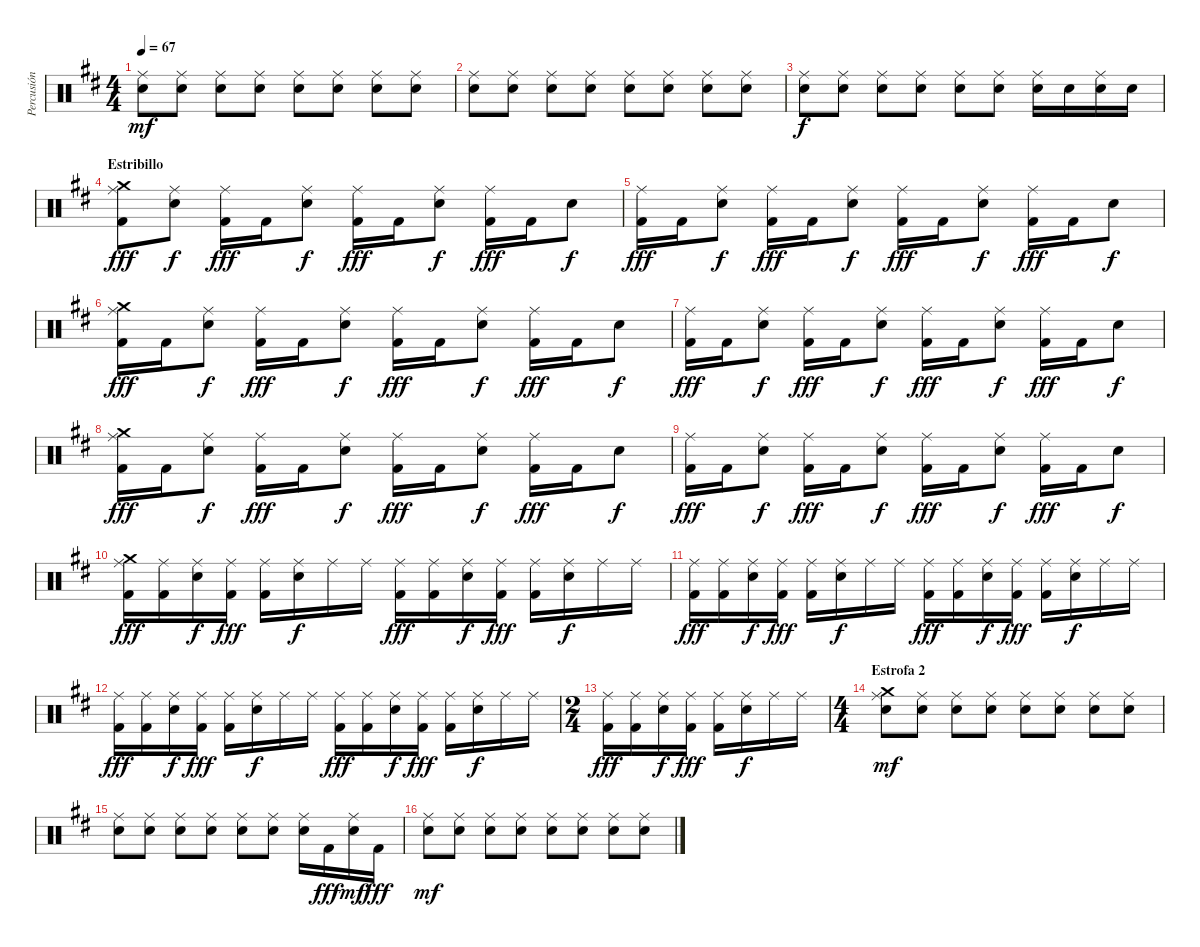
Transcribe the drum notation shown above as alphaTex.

\track ("Percusión" "Percusión") {instrument percussion}
\staff {score}
\articulation defaults
\ts (4 4)
\tempo 67
\clef neutral
\ks bminor
("Snare (hit) 2" "Ride (middle)").8{dy mf} ("Snare (hit) 2" "Ride (middle)").8 ("Snare (hit) 2" "Ride (middle)").8 ("Snare (hit) 2" "Ride (middle)").8 ("Snare (hit) 2" "Ride (middle)").8 ("Snare (hit) 2" "Ride (middle)").8 ("Snare (hit) 2" "Ride (middle)").8 ("Snare (hit) 2" "Ride (middle)").8 |
("Snare (hit) 2" "Ride (middle)").8 ("Snare (hit) 2" "Ride (middle)").8 ("Snare (hit) 2" "Ride (middle)").8 ("Snare (hit) 2" "Ride (middle)").8 ("Snare (hit) 2" "Ride (middle)").8 ("Snare (hit) 2" "Ride (middle)").8 ("Snare (hit) 2" "Ride (middle)").8 ("Snare (hit) 2" "Ride (middle)").8 |
("Snare (hit) 2" "Ride (middle)").8{dy f} ("Snare (hit) 2" "Ride (middle)").8 ("Snare (hit) 2" "Ride (middle)").8 ("Snare (hit) 2" "Ride (middle)").8 ("Snare (hit) 2" "Ride (middle)").8 ("Snare (hit) 2" "Ride (middle)").8 ("Snare (hit) 2" "Ride (middle)").16 "Snare (hit) 2".16 ("Snare (hit) 2" "Ride (middle)").16 "Snare (hit) 2".16 |
\section ("" "Estribillo")
("Ride (middle)" "Kick (hit) 2" "Crash medium (hit)").8{dy fff} ("Snare (hit) 2" "Ride (middle)").8{dy f} ("Ride (middle)" "Kick (hit) 2").16{dy fff} "Kick (hit) 2".16 ("Snare (hit) 2" "Ride (middle)").8{dy f} ("Ride (middle)" "Kick (hit) 2").16{dy fff} "Kick (hit) 2".16 ("Snare (hit) 2" "Ride (middle)").8{dy f} ("Ride (middle)" "Kick (hit) 2").16{dy fff} "Kick (hit) 2".16 "Snare (hit) 2".8{dy f} |
("Ride (middle)" "Kick (hit) 2").16{dy fff} "Kick (hit) 2".16 ("Snare (hit) 2" "Ride (middle)").8{dy f} ("Ride (middle)" "Kick (hit) 2").16{dy fff} "Kick (hit) 2".16 ("Snare (hit) 2" "Ride (middle)").8{dy f} ("Ride (middle)" "Kick (hit) 2").16{dy fff} "Kick (hit) 2".16 ("Snare (hit) 2" "Ride (middle)").8{dy f} ("Ride (middle)" "Kick (hit) 2").16{dy fff} "Kick (hit) 2".16 "Snare (hit) 2".8{dy f} |
("Ride (middle)" "Kick (hit) 2" "Crash medium (hit)").16{dy fff} "Kick (hit) 2".16 ("Snare (hit) 2" "Ride (middle)").8{dy f} ("Ride (middle)" "Kick (hit) 2").16{dy fff} "Kick (hit) 2".16 ("Snare (hit) 2" "Ride (middle)").8{dy f} ("Ride (middle)" "Kick (hit) 2").16{dy fff} "Kick (hit) 2".16 ("Snare (hit) 2" "Ride (middle)").8{dy f} ("Ride (middle)" "Kick (hit) 2").16{dy fff} "Kick (hit) 2".16 "Snare (hit) 2".8{dy f} |
("Ride (middle)" "Kick (hit) 2").16{dy fff} "Kick (hit) 2".16 ("Snare (hit) 2" "Ride (middle)").8{dy f} ("Ride (middle)" "Kick (hit) 2").16{dy fff} "Kick (hit) 2".16 ("Snare (hit) 2" "Ride (middle)").8{dy f} ("Ride (middle)" "Kick (hit) 2").16{dy fff} "Kick (hit) 2".16 ("Snare (hit) 2" "Ride (middle)").8{dy f} ("Ride (middle)" "Kick (hit) 2").16{dy fff} "Kick (hit) 2".16 "Snare (hit) 2".8{dy f} |
("Ride (middle)" "Kick (hit) 2" "Crash medium (hit)").16{dy fff} "Kick (hit) 2".16 ("Snare (hit) 2" "Ride (middle)").8{dy f} ("Ride (middle)" "Kick (hit) 2").16{dy fff} "Kick (hit) 2".16 ("Snare (hit) 2" "Ride (middle)").8{dy f} ("Ride (middle)" "Kick (hit) 2").16{dy fff} "Kick (hit) 2".16 ("Snare (hit) 2" "Ride (middle)").8{dy f} ("Ride (middle)" "Kick (hit) 2").16{dy fff} "Kick (hit) 2".16 "Snare (hit) 2".8{dy f} |
("Ride (middle)" "Kick (hit) 2").16{dy fff} "Kick (hit) 2".16 ("Snare (hit) 2" "Ride (middle)").8{dy f} ("Ride (middle)" "Kick (hit) 2").16{dy fff} "Kick (hit) 2".16 ("Snare (hit) 2" "Ride (middle)").8{dy f} ("Ride (middle)" "Kick (hit) 2").16{dy fff} "Kick (hit) 2".16 ("Snare (hit) 2" "Ride (middle)").8{dy f} ("Ride (middle)" "Kick (hit) 2").16{dy fff} "Kick (hit) 2".16 "Snare (hit) 2".8{dy f} |
("Ride (middle)" "Kick (hit) 2" "Crash medium (hit)").16{dy fff} ("Ride (middle)" "Kick (hit) 2").16 ("Snare (hit) 2" "Ride (middle)").16{dy f} ("Ride (middle)" "Kick (hit) 2").16{dy fff} ("Ride (middle)" "Kick (hit) 2").16 ("Snare (hit) 2" "Ride (middle)").16{dy f} "Ride (middle)".16 "Ride (middle)".16 ("Ride (middle)" "Kick (hit) 2").16{dy fff} ("Ride (middle)" "Kick (hit) 2").16 ("Snare (hit) 2" "Ride (middle)").16{dy f} ("Ride (middle)" "Kick (hit) 2").16{dy fff} ("Ride (middle)" "Kick (hit) 2").16 ("Snare (hit) 2" "Ride (middle)").16{dy f} "Ride (middle)".16 "Ride (middle)".16 |
("Ride (middle)" "Kick (hit) 2").16{dy fff} ("Ride (middle)" "Kick (hit) 2").16 ("Snare (hit) 2" "Ride (middle)").16{dy f} ("Ride (middle)" "Kick (hit) 2").16{dy fff} ("Ride (middle)" "Kick (hit) 2").16 ("Snare (hit) 2" "Ride (middle)").16{dy f} "Ride (middle)".16 "Ride (middle)".16 ("Ride (middle)" "Kick (hit) 2").16{dy fff} ("Ride (middle)" "Kick (hit) 2").16 ("Snare (hit) 2" "Ride (middle)").16{dy f} ("Ride (middle)" "Kick (hit) 2").16{dy fff} ("Ride (middle)" "Kick (hit) 2").16 ("Snare (hit) 2" "Ride (middle)").16{dy f} "Ride (middle)".16 "Ride (middle)".16 |
("Ride (middle)" "Kick (hit) 2").16{dy fff} ("Ride (middle)" "Kick (hit) 2").16 ("Snare (hit) 2" "Ride (middle)").16{dy f} ("Ride (middle)" "Kick (hit) 2").16{dy fff} ("Ride (middle)" "Kick (hit) 2").16 ("Snare (hit) 2" "Ride (middle)").16{dy f} "Ride (middle)".16 "Ride (middle)".16 ("Ride (middle)" "Kick (hit) 2").16{dy fff} ("Ride (middle)" "Kick (hit) 2").16 ("Snare (hit) 2" "Ride (middle)").16{dy f} ("Ride (middle)" "Kick (hit) 2").16{dy fff} ("Ride (middle)" "Kick (hit) 2").16 ("Snare (hit) 2" "Ride (middle)").16{dy f} "Ride (middle)".16 "Ride (middle)".16 |
\ts (2 4)
("Ride (middle)" "Kick (hit) 2").16{dy fff} ("Ride (middle)" "Kick (hit) 2").16 ("Snare (hit) 2" "Ride (middle)").16{dy f} ("Ride (middle)" "Kick (hit) 2").16{dy fff} ("Ride (middle)" "Kick (hit) 2").16 ("Snare (hit) 2" "Ride (middle)").16{dy f} "Ride (middle)".16 "Ride (middle)".16 |
\ts (4 4)
\section ("" "Estrofa 2")
("Snare (hit) 2" "Ride (middle)" "Crash medium (hit)").8{dy mf} ("Snare (hit) 2" "Ride (middle)").8 ("Snare (hit) 2" "Ride (middle)").8 ("Snare (hit) 2" "Ride (middle)").8 ("Snare (hit) 2" "Ride (middle)").8 ("Snare (hit) 2" "Ride (middle)").8 ("Snare (hit) 2" "Ride (middle)").8 ("Snare (hit) 2" "Ride (middle)").8 |
("Snare (hit) 2" "Ride (middle)").8 ("Snare (hit) 2" "Ride (middle)").8 ("Snare (hit) 2" "Ride (middle)").8 ("Snare (hit) 2" "Ride (middle)").8 ("Snare (hit) 2" "Ride (middle)").8 ("Snare (hit) 2" "Ride (middle)").8 ("Snare (hit) 2" "Ride (middle)").16 "Kick (hit) 2".16{dy fff} ("Snare (hit) 2" "Ride (middle)").16{dy mf} "Kick (hit) 2".16{dy fff} |
("Snare (hit) 2" "Ride (middle)").8{dy mf} ("Snare (hit) 2" "Ride (middle)").8 ("Snare (hit) 2" "Ride (middle)").8 ("Snare (hit) 2" "Ride (middle)").8 ("Snare (hit) 2" "Ride (middle)").8 ("Snare (hit) 2" "Ride (middle)").8 ("Snare (hit) 2" "Ride (middle)").8 ("Snare (hit) 2" "Ride (middle)").8
